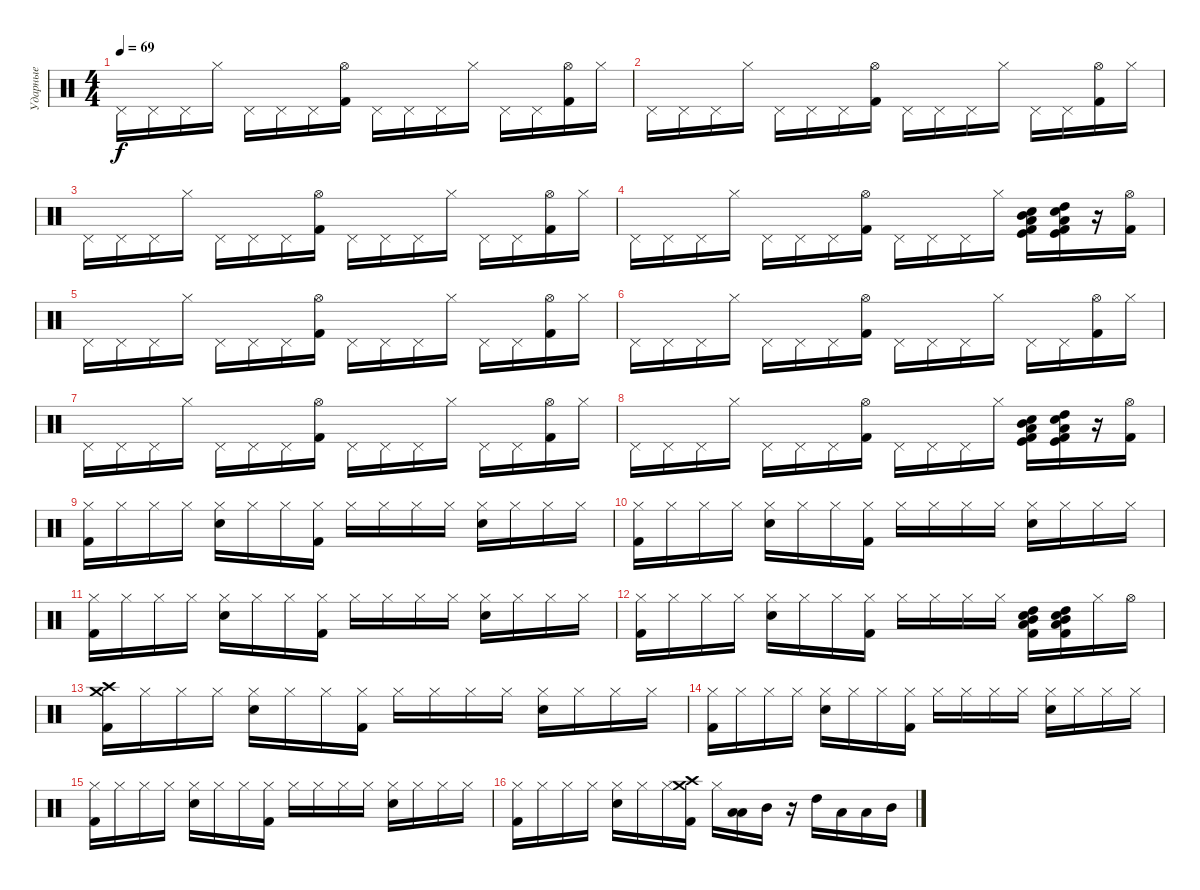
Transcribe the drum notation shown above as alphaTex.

\track ("Ударные" "Ударные") {instrument percussion}
\staff {score}
\articulation defaults
\ts (4 4)
\tempo 69
\clef neutral
\ks c "Pedal Hi-Hat (hit)".16{dy f} "Pedal Hi-Hat (hit)".16 "Pedal Hi-Hat (hit)".16 "Hi-Hat (closed)".16 "Pedal Hi-Hat (hit)".16 "Pedal Hi-Hat (hit)".16 "Pedal Hi-Hat (hit)".16
("Hi-Hat (open)" "Kick (hit) 2").16 "Pedal Hi-Hat (hit)".16 "Pedal Hi-Hat (hit)".16 "Pedal Hi-Hat (hit)".16 "Hi-Hat (closed)".16 "Pedal Hi-Hat (hit)".16 "Pedal Hi-Hat (hit)".16 ("Hi-Hat (open)" "Kick (hit) 2").16 "Hi-Hat (closed)".16 |
"Pedal Hi-Hat (hit)".16 "Pedal Hi-Hat (hit)".16 "Pedal Hi-Hat (hit)".16 "Hi-Hat (closed)".16 "Pedal Hi-Hat (hit)".16 "Pedal Hi-Hat (hit)".16 "Pedal Hi-Hat (hit)".16 ("Hi-Hat (open)" "Kick (hit) 2").16 "Pedal Hi-Hat (hit)".16 "Pedal Hi-Hat (hit)".16 "Pedal Hi-Hat (hit)".16 "Hi-Hat (closed)".16 "Pedal Hi-Hat (hit)".16 "Pedal Hi-Hat (hit)".16 ("Hi-Hat (open)" "Kick (hit) 2").16 "Hi-Hat (closed)".16 |
"Pedal Hi-Hat (hit)".16 "Pedal Hi-Hat (hit)".16 "Pedal Hi-Hat (hit)".16 "Hi-Hat (closed)".16 "Pedal Hi-Hat (hit)".16 "Pedal Hi-Hat (hit)".16 "Pedal Hi-Hat (hit)".16 ("Hi-Hat (open)" "Kick (hit) 2").16 "Pedal Hi-Hat (hit)".16 "Pedal Hi-Hat (hit)".16 "Pedal Hi-Hat (hit)".16 "Hi-Hat (closed)".16 "Pedal Hi-Hat (hit)".16 "Pedal Hi-Hat (hit)".16 ("Hi-Hat (open)" "Kick (hit) 2").16 "Hi-Hat (closed)".16 |
"Pedal Hi-Hat (hit)".16 "Pedal Hi-Hat (hit)".16 "Pedal Hi-Hat (hit)".16 "Hi-Hat (closed)".16 "Pedal Hi-Hat (hit)".16 "Pedal Hi-Hat (hit)".16 "Pedal Hi-Hat (hit)".16 ("Hi-Hat (open)" "Kick (hit) 2").16 "Pedal Hi-Hat (hit)".16 "Pedal Hi-Hat (hit)".16 "Pedal Hi-Hat (hit)".16 "Hi-Hat (closed)".16 ("Snare (hit) 2" "Kick (hit)" "Kick (hit) 2" "Mid Tom (hit)" "Low Floor Tom (hit)").16 ("Snare (hit) 2" "Kick (hit)" "Kick (hit) 2" "High Tom (hit)" "Low Floor Tom (hit)").16 r.16 ("Hi-Hat (open)" "Kick (hit) 2").16 |
"Pedal Hi-Hat (hit)".16 "Pedal Hi-Hat (hit)".16 "Pedal Hi-Hat (hit)".16 "Hi-Hat (closed)".16 "Pedal Hi-Hat (hit)".16 "Pedal Hi-Hat (hit)".16 "Pedal Hi-Hat (hit)".16 ("Hi-Hat (open)" "Kick (hit) 2").16 "Pedal Hi-Hat (hit)".16 "Pedal Hi-Hat (hit)".16 "Pedal Hi-Hat (hit)".16 "Hi-Hat (closed)".16 "Pedal Hi-Hat (hit)".16 "Pedal Hi-Hat (hit)".16 ("Hi-Hat (open)" "Kick (hit) 2").16 "Hi-Hat (closed)".16 |
"Pedal Hi-Hat (hit)".16 "Pedal Hi-Hat (hit)".16 "Pedal Hi-Hat (hit)".16 "Hi-Hat (closed)".16 "Pedal Hi-Hat (hit)".16 "Pedal Hi-Hat (hit)".16 "Pedal Hi-Hat (hit)".16 ("Hi-Hat (open)" "Kick (hit) 2").16 "Pedal Hi-Hat (hit)".16 "Pedal Hi-Hat (hit)".16 "Pedal Hi-Hat (hit)".16 "Hi-Hat (closed)".16 "Pedal Hi-Hat (hit)".16 "Pedal Hi-Hat (hit)".16 ("Hi-Hat (open)" "Kick (hit) 2").16 "Hi-Hat (closed)".16 |
"Pedal Hi-Hat (hit)".16 "Pedal Hi-Hat (hit)".16 "Pedal Hi-Hat (hit)".16 "Hi-Hat (closed)".16 "Pedal Hi-Hat (hit)".16 "Pedal Hi-Hat (hit)".16 "Pedal Hi-Hat (hit)".16 ("Hi-Hat (open)" "Kick (hit) 2").16 "Pedal Hi-Hat (hit)".16 "Pedal Hi-Hat (hit)".16 "Pedal Hi-Hat (hit)".16 "Hi-Hat (closed)".16 "Pedal Hi-Hat (hit)".16 "Pedal Hi-Hat (hit)".16 ("Hi-Hat (open)" "Kick (hit) 2").16 "Hi-Hat (closed)".16 |
"Pedal Hi-Hat (hit)".16 "Pedal Hi-Hat (hit)".16 "Pedal Hi-Hat (hit)".16 "Hi-Hat (closed)".16 "Pedal Hi-Hat (hit)".16 "Pedal Hi-Hat (hit)".16 "Pedal Hi-Hat (hit)".16 ("Hi-Hat (open)" "Kick (hit) 2").16 "Pedal Hi-Hat (hit)".16 "Pedal Hi-Hat (hit)".16 "Pedal Hi-Hat (hit)".16 "Hi-Hat (closed)".16 ("Snare (hit) 2" "Kick (hit)" "Kick (hit) 2" "Mid Tom (hit)" "Low Floor Tom (hit)").16 ("Snare (hit) 2" "Kick (hit)" "Kick (hit) 2" "High Tom (hit)" "Low Floor Tom (hit)").16 r.16 ("Hi-Hat (open)" "Kick (hit) 2").16 |
("Hi-Hat (closed)" "Kick (hit) 2").16 "Hi-Hat (closed)".16 "Hi-Hat (closed)".16 "Hi-Hat (closed)".16 ("Hi-Hat (closed)" "Snare (hit) 2").16 "Hi-Hat (closed)".16 "Hi-Hat (closed)".16 ("Hi-Hat (closed)" "Kick (hit) 2").16 "Hi-Hat (closed)".16 "Hi-Hat (closed)".16 "Hi-Hat (closed)".16 "Hi-Hat (closed)".16 ("Hi-Hat (closed)" "Snare (hit) 2").16 "Hi-Hat (closed)".16 "Hi-Hat (closed)".16 "Hi-Hat (closed)".16 |
("Hi-Hat (closed)" "Kick (hit) 2").16 "Hi-Hat (closed)".16 "Hi-Hat (closed)".16 "Hi-Hat (closed)".16 ("Hi-Hat (closed)" "Snare (hit) 2").16 "Hi-Hat (closed)".16 "Hi-Hat (closed)".16 ("Hi-Hat (closed)" "Kick (hit) 2").16 "Hi-Hat (closed)".16 "Hi-Hat (closed)".16 "Hi-Hat (closed)".16 "Hi-Hat (closed)".16 ("Hi-Hat (closed)" "Snare (hit) 2").16 "Hi-Hat (closed)".16 "Hi-Hat (closed)".16 "Hi-Hat (closed)".16 |
("Hi-Hat (closed)" "Kick (hit) 2").16 "Hi-Hat (closed)".16 "Hi-Hat (closed)".16 "Hi-Hat (closed)".16 ("Hi-Hat (closed)" "Snare (hit) 2").16 "Hi-Hat (closed)".16 "Hi-Hat (closed)".16 ("Hi-Hat (closed)" "Kick (hit) 2").16 "Hi-Hat (closed)".16 "Hi-Hat (closed)".16 "Hi-Hat (closed)".16 "Hi-Hat (closed)".16 ("Hi-Hat (closed)" "Snare (hit) 2").16 "Hi-Hat (closed)".16 "Hi-Hat (closed)".16 "Hi-Hat (closed)".16 |
("Hi-Hat (closed)" "Kick (hit) 2").16 "Hi-Hat (closed)".16 "Hi-Hat (closed)".16 "Hi-Hat (closed)".16 ("Hi-Hat (closed)" "Snare (hit) 2").16 "Hi-Hat (closed)".16 "Hi-Hat (closed)".16 ("Hi-Hat (closed)" "Kick (hit) 2").16 "Hi-Hat (closed)".16 "Hi-Hat (closed)".16 "Hi-Hat (closed)".16 "Hi-Hat (closed)".16 ("Low Floor Tom (hit)" "Snare (hit) 2" "High Tom (hit)" "Mid Tom (hit)" "Kick (hit) 2").16 ("Low Floor Tom (hit)" "Snare (hit) 2" "High Tom (hit)" "Mid Tom (hit)" "Kick (hit) 2").16 "Hi-Hat (closed)".16 "Hi-Hat (open)".16 |
("Crash high (hit)" "Crash medium (hit)" "Kick (hit) 2").16 "Hi-Hat (closed)".16 "Hi-Hat (closed)".16 "Hi-Hat (closed)".16 ("Hi-Hat (closed)" "Snare (hit) 2").16 "Hi-Hat (closed)".16 "Hi-Hat (closed)".16 ("Hi-Hat (closed)" "Kick (hit) 2").16 "Hi-Hat (closed)".16 "Hi-Hat (closed)".16 "Hi-Hat (closed)".16 "Hi-Hat (closed)".16 ("Hi-Hat (closed)" "Snare (hit) 2").16 "Hi-Hat (closed)".16 "Hi-Hat (closed)".16 "Hi-Hat (closed)".16 |
("Hi-Hat (closed)" "Kick (hit) 2").16 "Hi-Hat (closed)".16 "Hi-Hat (closed)".16 "Hi-Hat (closed)".16 ("Hi-Hat (closed)" "Snare (hit) 2").16 "Hi-Hat (closed)".16 "Hi-Hat (closed)".16 ("Hi-Hat (closed)" "Kick (hit) 2").16 "Hi-Hat (closed)".16 "Hi-Hat (closed)".16 "Hi-Hat (closed)".16 "Hi-Hat (closed)".16 ("Hi-Hat (closed)" "Snare (hit) 2").16 "Hi-Hat (closed)".16 "Hi-Hat (closed)".16 "Hi-Hat (closed)".16 |
("Hi-Hat (closed)" "Kick (hit) 2").16 "Hi-Hat (closed)".16 "Hi-Hat (closed)".16 "Hi-Hat (closed)".16 ("Hi-Hat (closed)" "Snare (hit) 2").16 "Hi-Hat (closed)".16 "Hi-Hat (closed)".16 ("Hi-Hat (closed)" "Kick (hit) 2").16 "Hi-Hat (closed)".16 "Hi-Hat (closed)".16 "Hi-Hat (closed)".16 "Hi-Hat (closed)".16 ("Hi-Hat (closed)" "Snare (hit) 2").16 "Hi-Hat (closed)".16 "Hi-Hat (closed)".16 "Hi-Hat (closed)".16 |
("Hi-Hat (closed)" "Kick (hit) 2").16 "Hi-Hat (closed)".16 "Hi-Hat (closed)".16 "Hi-Hat (closed)".16 ("Hi-Hat (closed)" "Snare (hit) 2").16 "Hi-Hat (closed)".16 "Hi-Hat (closed)".16 ("Crash high (hit)" "Crash medium (hit)" "Kick (hit) 2").16 "Hi-Hat (closed)".16 ("Low Floor Tom (hit)" "Low Floor Tom (hit)").16 "Mid Tom (hit)".16 r.16 "High Tom (hit)".16 "Low Tom (hit)".16 "Low Floor Tom (hit)".16 "Mid Tom (hit)".16
